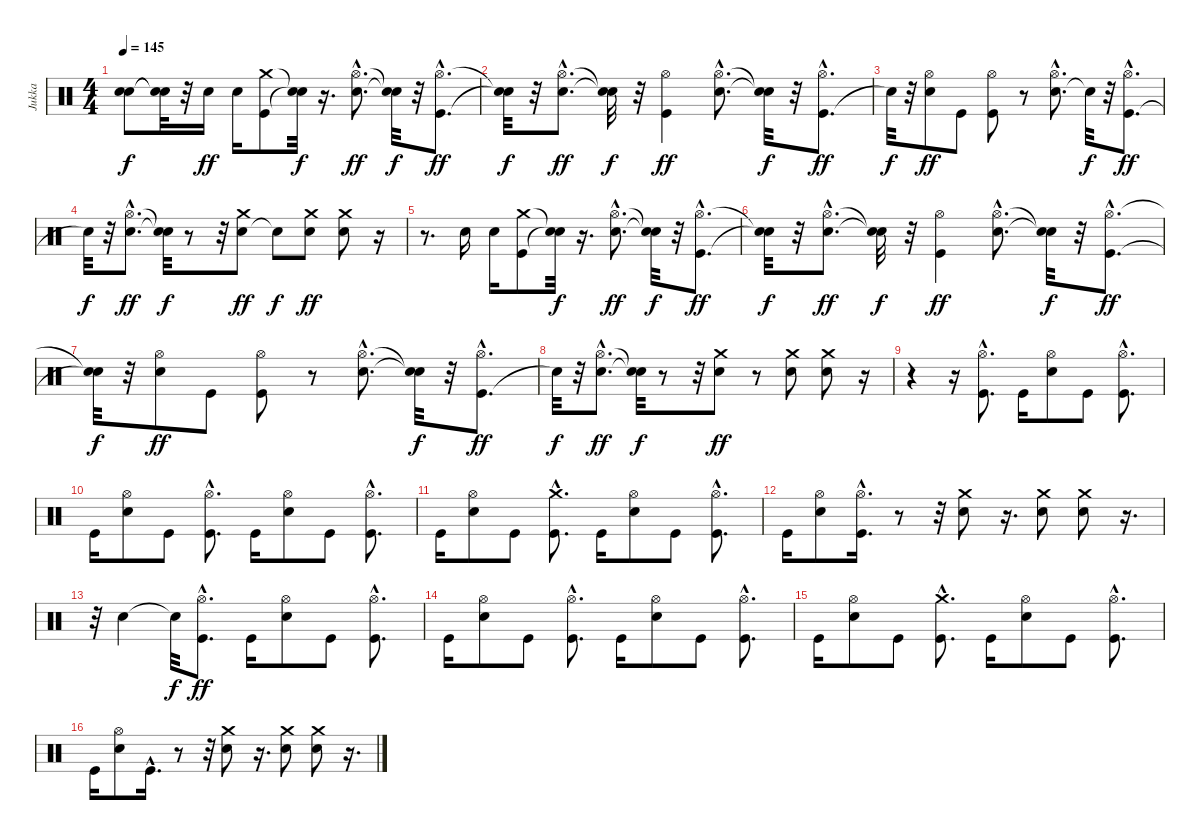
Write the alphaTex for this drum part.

\track ("Jukka" "Jukka") {instrument percussion}
\staff {score}
\articulation defaults
\ts (4 4)
\tempo 145
\clef neutral
\ks c
("Snare (hit)"{t} "Snare (hit)"{t}).8{dy f} ("Snare (hit)"{t} "Snare (hit)"{t}).32 r.32 "Electric Snare (hit)".16{dy ff} "Electric Snare (hit)".16 ("Kick (hit)" "Crash medium (hit)").8 ("Snare (hit)"{t} "Snare (hit)"{t}).32{dy f} r.16{d} ("Electric Snare (hit)"{hac} "Hi-Hat (open)"{hac}).8{d dy ff} ("Snare (hit)"{t} "Snare (hit)"{t}).32{dy f} r.32 ("Kick (hit)"{hac} "Hi-Hat (open)"{hac}).8{d dy ff} |
("Snare (hit)"{t} "Snare (hit)"{t}).32{dy f} r.32 ("Electric Snare (hit)"{hac} "Hi-Hat (open)"{hac}).8{d dy ff} ("Snare (hit)"{t} "Snare (hit)"{t}).32{dy f} r.32 ("Kick (hit)" "Hi-Hat (open)").4{dy ff} ("Electric Snare (hit)"{hac} "Hi-Hat (open)"{hac}).8{d} ("Snare (hit)"{t} "Snare (hit)"{t}).32{dy f} r.32 ("Kick (hit)"{hac} "Hi-Hat (open)"{hac}).8{d dy ff} |
"Snare (hit)"{t}.32{dy f} r.32 ("Electric Snare (hit)" "Hi-Hat (open)").8{dy ff} "Kick (hit)".8 ("Kick (hit)" "Hi-Hat (open)").8 r.8 ("Electric Snare (hit)"{hac} "Hi-Hat (open)"{hac}).8{d} "Snare (hit)"{t}.32{dy f} r.32 ("Kick (hit)"{hac} "Hi-Hat (open)"{hac}).8{d dy ff} |
"Snare (hit)"{t}.32{dy f} r.32 ("Electric Snare (hit)"{hac} "Hi-Hat (open)"{hac}).8{d dy ff} ("Snare (hit)"{t} "Snare (hit)"{t}).32{dy f} r.8 r.32 ("Electric Snare (hit)" "Crash medium (hit)").8{dy ff} "Snare (hit)"{t}.8{dy f} ("Electric Snare (hit)" "Crash medium (hit)").8{dy ff} ("Electric Snare (hit)" "Crash medium (hit)").8 r.16 |
r.8{d} "Electric Snare (hit)".16 "Electric Snare (hit)".16 ("Kick (hit)" "Crash medium (hit)").8 ("Snare (hit)"{t} "Snare (hit)"{t}).32{dy f} r.16{d} ("Electric Snare (hit)"{hac} "Hi-Hat (open)"{hac}).8{d dy ff} ("Snare (hit)"{t} "Snare (hit)"{t}).32{dy f} r.32 ("Kick (hit)"{hac} "Hi-Hat (open)"{hac}).8{d dy ff} |
("Snare (hit)"{t} "Snare (hit)"{t}).32{dy f} r.32 ("Electric Snare (hit)"{hac} "Hi-Hat (open)"{hac}).8{d dy ff} ("Snare (hit)"{t} "Snare (hit)"{t}).32{dy f} r.32 ("Kick (hit)" "Hi-Hat (open)").4{dy ff} ("Electric Snare (hit)"{hac} "Hi-Hat (open)"{hac}).8{d} ("Snare (hit)"{t} "Snare (hit)"{t}).32{dy f} r.32 ("Kick (hit)"{hac} "Hi-Hat (open)"{hac}).8{d dy ff} |
("Snare (hit)"{t} "Snare (hit)"{t}).32{dy f} r.32 ("Electric Snare (hit)" "Hi-Hat (open)").8{dy ff} "Kick (hit)".8 ("Kick (hit)" "Hi-Hat (open)").8 r.8 ("Electric Snare (hit)"{hac} "Hi-Hat (open)"{hac}).8{d} ("Snare (hit)"{t} "Snare (hit)"{t}).32{dy f} r.32 ("Kick (hit)"{hac} "Hi-Hat (open)"{hac}).8{d dy ff} |
"Snare (hit)"{t}.32{dy f} r.32 ("Electric Snare (hit)"{hac} "Hi-Hat (open)"{hac}).8{d dy ff} ("Snare (hit)"{t} "Snare (hit)"{t}).32{dy f} r.8 r.32 ("Electric Snare (hit)" "Crash medium (hit)").8{dy ff} r.8 ("Electric Snare (hit)" "Crash medium (hit)").8 ("Electric Snare (hit)" "Crash medium (hit)").8 r.16 |
r.4 r.16 ("Kick (hit)"{hac} "Hi-Hat (open)"{hac}).8{d} "Kick (hit)".16 ("Electric Snare (hit)" "Hi-Hat (open)").8 "Kick (hit)".8 ("Kick (hit)"{hac} "Hi-Hat (open)"{hac}).8{d} |
"Kick (hit)".16 ("Electric Snare (hit)" "Hi-Hat (open)").8 "Kick (hit)".8 ("Kick (hit)"{hac} "Hi-Hat (open)"{hac}).8{d} "Kick (hit)".16 ("Electric Snare (hit)" "Hi-Hat (open)").8 "Kick (hit)".8 ("Kick (hit)"{hac} "Hi-Hat (open)"{hac}).8{d} |
"Kick (hit)".16 ("Electric Snare (hit)" "Hi-Hat (open)").8 "Kick (hit)".8 ("Kick (hit)"{hac} "Crash medium (hit)"{hac}).8{d} "Kick (hit)".16 ("Electric Snare (hit)" "Hi-Hat (open)").8 "Kick (hit)".8 ("Kick (hit)"{hac} "Hi-Hat (open)"{hac}).8{d} |
"Kick (hit)".16 ("Electric Snare (hit)" "Hi-Hat (open)").8 ("Kick (hit)"{hac} "Hi-Hat (open)"{hac}).16{d} r.8 r.32 ("Electric Snare (hit)" "Crash medium (hit)").8 r.16{d} ("Electric Snare (hit)" "Crash medium (hit)").8 ("Electric Snare (hit)" "Crash medium (hit)").8 r.16{d} |
r.32 "Electric Snare (hit)".4 "Snare (hit)"{t}.32{dy f} ("Kick (hit)"{hac} "Hi-Hat (open)"{hac}).8{d dy ff} "Kick (hit)".16 ("Electric Snare (hit)" "Hi-Hat (open)").8 "Kick (hit)".8 ("Kick (hit)"{hac} "Hi-Hat (open)"{hac}).8{d} |
"Kick (hit)".16 ("Electric Snare (hit)" "Hi-Hat (open)").8 "Kick (hit)".8 ("Kick (hit)"{hac} "Hi-Hat (open)"{hac}).8{d} "Kick (hit)".16 ("Electric Snare (hit)" "Hi-Hat (open)").8 "Kick (hit)".8 ("Kick (hit)"{hac} "Hi-Hat (open)"{hac}).8{d} |
"Kick (hit)".16 ("Electric Snare (hit)" "Hi-Hat (open)").8 "Kick (hit)".8 ("Kick (hit)"{hac} "Crash medium (hit)"{hac}).8{d} "Kick (hit)".16 ("Electric Snare (hit)" "Hi-Hat (open)").8 "Kick (hit)".8 ("Kick (hit)"{hac} "Hi-Hat (open)"{hac}).8{d} |
"Kick (hit)".16 ("Electric Snare (hit)" "Hi-Hat (open)").8 "Kick (hit)"{hac}.16{d} r.8 r.32 ("Electric Snare (hit)" "Crash medium (hit)").8 r.16{d} ("Electric Snare (hit)" "Crash medium (hit)").8 ("Electric Snare (hit)" "Crash medium (hit)").8 r.16{d}
